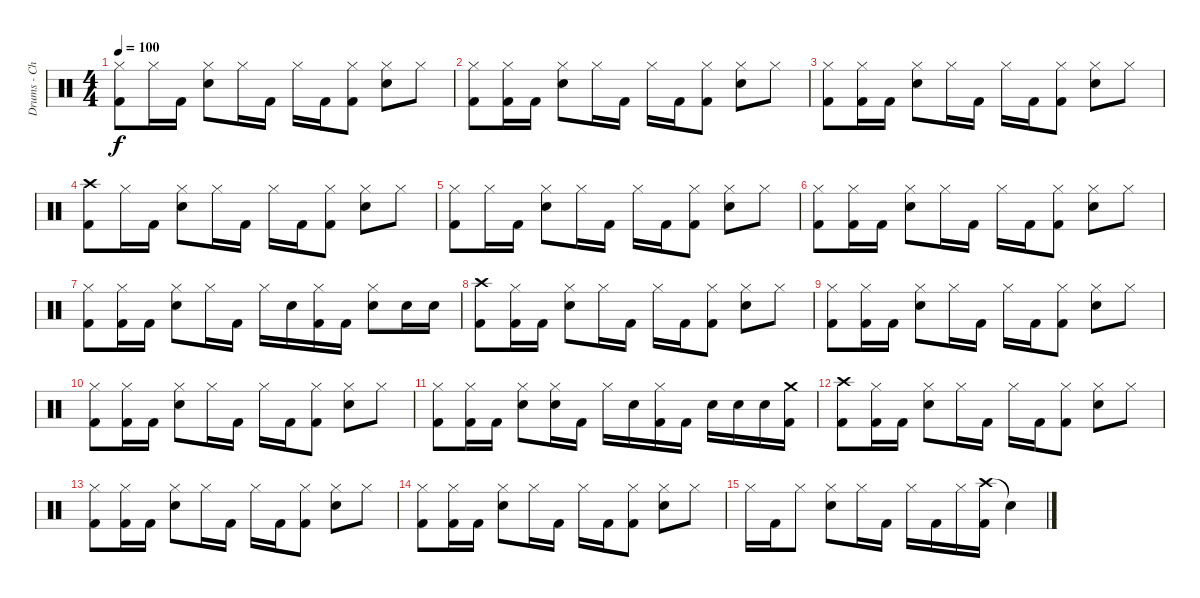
\track ("Drums - Chad" "Drums - Ch") {instrument percussion}
\staff {score}
\articulation defaults
\ts (4 4)
\tempo 100
\clef neutral
\ks c
("Hi-Hat (closed)" "Kick (hit) 2").8{dy f} "Hi-Hat (closed)".16 "Kick (hit) 2".16 ("Hi-Hat (closed)" "Electric Snare (hit)").8 "Hi-Hat (closed)".16 "Kick (hit) 2".16 "Hi-Hat (closed)".16 "Kick (hit) 2".16 ("Hi-Hat (closed)" "Kick (hit) 2").8 ("Hi-Hat (closed)" "Electric Snare (hit)").8 "Hi-Hat (closed)".8 |
("Hi-Hat (closed)" "Kick (hit) 2").8 ("Hi-Hat (closed)" "Kick (hit) 2").16 "Kick (hit) 2".16 ("Hi-Hat (closed)" "Electric Snare (hit)").8 "Hi-Hat (closed)".16 "Kick (hit) 2".16 "Hi-Hat (closed)".16 "Kick (hit) 2".16 ("Hi-Hat (closed)" "Kick (hit) 2").8 ("Hi-Hat (closed)" "Electric Snare (hit)").8 "Hi-Hat (closed)".8 |
("Hi-Hat (closed)" "Kick (hit) 2").8 ("Hi-Hat (closed)" "Kick (hit) 2").16 "Kick (hit) 2".16 ("Hi-Hat (closed)" "Electric Snare (hit)").8 "Hi-Hat (closed)".16 "Kick (hit) 2".16 "Hi-Hat (closed)".16 "Kick (hit) 2".16 ("Hi-Hat (closed)" "Kick (hit) 2").8 ("Hi-Hat (closed)" "Electric Snare (hit)").8 "Hi-Hat (closed)".8 |
("Crash high (hit)" "Kick (hit) 2").8 "Hi-Hat (closed)".16 "Kick (hit) 2".16 ("Hi-Hat (closed)" "Electric Snare (hit)").8 "Hi-Hat (closed)".16 "Kick (hit) 2".16 "Hi-Hat (closed)".16 "Kick (hit) 2".16 ("Hi-Hat (closed)" "Kick (hit) 2").8 ("Hi-Hat (closed)" "Electric Snare (hit)").8 "Hi-Hat (closed)".8 |
("Hi-Hat (closed)" "Kick (hit) 2").8 "Hi-Hat (closed)".16 "Kick (hit) 2".16 ("Hi-Hat (closed)" "Electric Snare (hit)").8 "Hi-Hat (closed)".16 "Kick (hit) 2".16 "Hi-Hat (closed)".16 "Kick (hit) 2".16 ("Hi-Hat (closed)" "Kick (hit) 2").8 ("Hi-Hat (closed)" "Electric Snare (hit)").8 "Hi-Hat (closed)".8 |
("Hi-Hat (closed)" "Kick (hit) 2").8 ("Hi-Hat (closed)" "Kick (hit) 2").16 "Kick (hit) 2".16 ("Hi-Hat (closed)" "Electric Snare (hit)").8 "Hi-Hat (closed)".16 "Kick (hit) 2".16 "Hi-Hat (closed)".16 "Kick (hit) 2".16 ("Hi-Hat (closed)" "Kick (hit) 2").8 ("Hi-Hat (closed)" "Electric Snare (hit)").8 "Hi-Hat (closed)".8 |
("Hi-Hat (closed)" "Kick (hit) 2").8 ("Hi-Hat (closed)" "Kick (hit) 2").16 "Kick (hit) 2".16 ("Hi-Hat (closed)" "Electric Snare (hit)").8 "Hi-Hat (closed)".16 "Kick (hit) 2".16 "Hi-Hat (closed)".16 "Electric Snare (hit)".16 ("Hi-Hat (closed)" "Kick (hit) 2").16 "Kick (hit) 2".16 ("Hi-Hat (closed)" "Electric Snare (hit)").8 "Electric Snare (hit)".16 "Electric Snare (hit)".16 |
("Crash high (hit)" "Kick (hit) 2").8 ("Hi-Hat (closed)" "Kick (hit) 2").16 "Kick (hit) 2".16 ("Hi-Hat (closed)" "Electric Snare (hit)").8 "Hi-Hat (closed)".16 "Kick (hit) 2".16 "Hi-Hat (closed)".16 "Kick (hit) 2".16 ("Hi-Hat (closed)" "Kick (hit) 2").8 ("Hi-Hat (closed)" "Electric Snare (hit)").8 "Hi-Hat (closed)".8 |
("Hi-Hat (closed)" "Kick (hit) 2").8 ("Hi-Hat (closed)" "Kick (hit) 2").16 "Kick (hit) 2".16 ("Hi-Hat (closed)" "Electric Snare (hit)").8 "Hi-Hat (closed)".16 "Kick (hit) 2".16 "Hi-Hat (closed)".16 "Kick (hit) 2".16 ("Hi-Hat (closed)" "Kick (hit) 2").8 ("Hi-Hat (closed)" "Electric Snare (hit)").8 "Hi-Hat (closed)".8 |
("Hi-Hat (closed)" "Kick (hit) 2").8 ("Hi-Hat (closed)" "Kick (hit) 2").16 "Kick (hit) 2".16 ("Hi-Hat (closed)" "Electric Snare (hit)").8 "Hi-Hat (closed)".16 "Kick (hit) 2".16 "Hi-Hat (closed)".16 "Kick (hit) 2".16 ("Hi-Hat (closed)" "Kick (hit) 2").8 ("Hi-Hat (closed)" "Electric Snare (hit)").8 "Hi-Hat (closed)".8 |
("Hi-Hat (closed)" "Kick (hit) 2").8 ("Hi-Hat (closed)" "Kick (hit) 2").16 "Kick (hit) 2".16 ("Hi-Hat (closed)" "Electric Snare (hit)").8 ("Hi-Hat (closed)" "Electric Snare (hit)").16 "Kick (hit) 2".16 "Hi-Hat (closed)".16 "Electric Snare (hit)".16 ("Hi-Hat (closed)" "Kick (hit) 2").16 "Kick (hit) 2".16 "Electric Snare (hit)".16 "Electric Snare (hit)".16 "Electric Snare (hit)".16 ("Crash medium (hit)" "Kick (hit) 2").16 |
("Crash high (hit)" "Kick (hit) 2").8 ("Hi-Hat (closed)" "Kick (hit) 2").16 "Kick (hit) 2".16 ("Hi-Hat (closed)" "Electric Snare (hit)").8 "Hi-Hat (closed)".16 "Kick (hit) 2".16 "Hi-Hat (closed)".16 "Kick (hit) 2".16 ("Hi-Hat (closed)" "Kick (hit) 2").8 ("Hi-Hat (closed)" "Electric Snare (hit)").8 "Hi-Hat (closed)".8 |
("Hi-Hat (closed)" "Kick (hit) 2").8 ("Hi-Hat (closed)" "Kick (hit) 2").16 "Kick (hit) 2".16 ("Hi-Hat (closed)" "Electric Snare (hit)").8 "Hi-Hat (closed)".16 "Kick (hit) 2".16 "Hi-Hat (closed)".16 "Kick (hit) 2".16 ("Hi-Hat (closed)" "Kick (hit) 2").8 ("Hi-Hat (closed)" "Electric Snare (hit)").8 "Hi-Hat (closed)".8 |
("Hi-Hat (closed)" "Kick (hit) 2").8 ("Hi-Hat (closed)" "Kick (hit) 2").16 "Kick (hit) 2".16 ("Hi-Hat (closed)" "Electric Snare (hit)").8 "Hi-Hat (closed)".16 "Kick (hit) 2".16 "Hi-Hat (closed)".16 "Kick (hit) 2".16 ("Hi-Hat (closed)" "Kick (hit) 2").8 ("Hi-Hat (closed)" "Electric Snare (hit)").8 "Hi-Hat (closed)".8 |
"Hi-Hat (closed)".16 "Kick (hit) 2".16 "Hi-Hat (closed)".8 ("Hi-Hat (closed)" "Electric Snare (hit)").8 "Hi-Hat (closed)".16 "Kick (hit) 2".16 "Hi-Hat (closed)".16 "Kick (hit) 2".16 "Hi-Hat (closed)".16 ("Crash high (hit)" "Kick (hit) 2").16 "Snare (hit)"{t}.4
